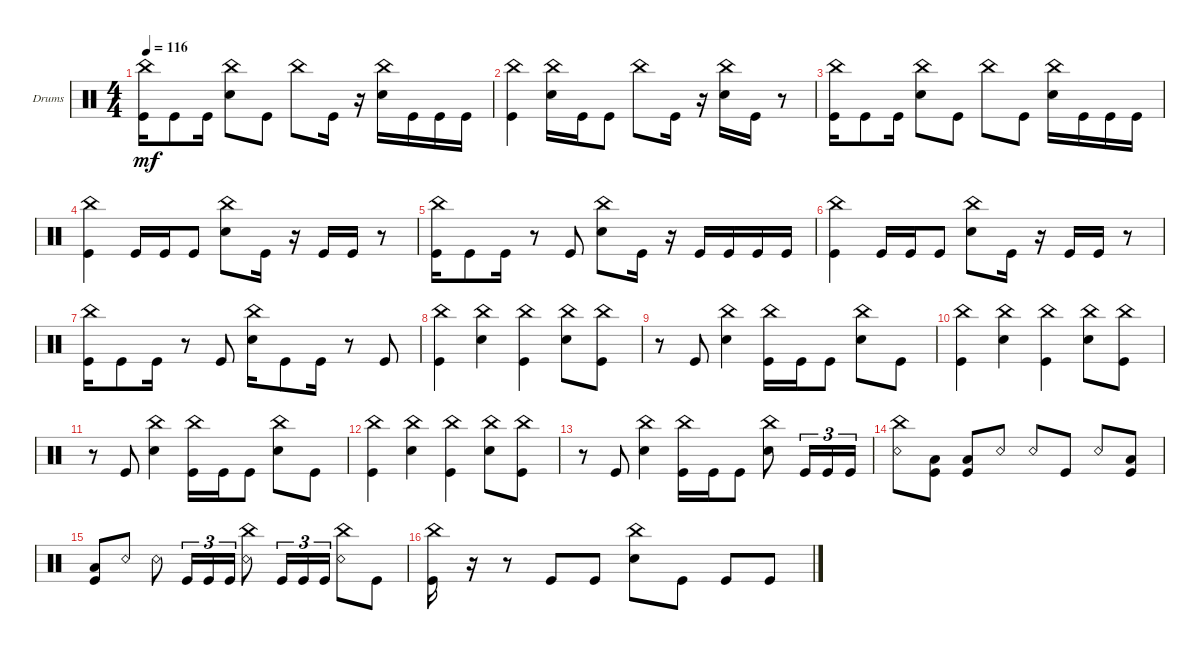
\defaultSystemsLayout 4
\bracketExtendMode groupsimilarinstruments
\firstSystemTrackNameOrientation horizontal
\otherSystemsTrackNameOrientation horizontal
\track ("Drumkit" "Drums") {instrument percussion}
\staff {score}
\articulation defaults
\ts (4 4)
\tempo 116
\clef neutral
\ks c
("Kick (hit)" "China (hit)").16{dy mf} "Kick (hit)".8 "Kick (hit)".16 ("China (hit)" "Snare (hit) 2").8 "Kick (hit)".8 "China (hit)".8 "Kick (hit)".16 r.16 ("China (hit)" "Snare (hit) 2").16 "Kick (hit)".16 "Kick (hit)".16 "Kick (hit)".16 |
("Kick (hit)" "China (hit)").4 ("China (hit)" "Snare (hit) 2").16 "Kick (hit)".16 "Kick (hit)".8 "China (hit)".8 "Kick (hit)".16 r.16 ("China (hit)" "Snare (hit) 2").16 "Kick (hit)".16 r.8 |
("Kick (hit)" "China (hit)").16 "Kick (hit)".8 "Kick (hit)".16 ("China (hit)" "Snare (hit) 2").8 "Kick (hit)".8 "China (hit)".8 "Kick (hit)".8 ("China (hit)" "Snare (hit) 2").16 "Kick (hit)".16 "Kick (hit)".16 "Kick (hit)".16 |
("Kick (hit)" "China (hit)").4 "Kick (hit)".16 "Kick (hit)".16 "Kick (hit)".8 ("China (hit)" "Snare (hit) 2").8 "Kick (hit)".16 r.16 "Kick (hit)".16 "Kick (hit)".16 r.8 |
("Kick (hit)" "China (hit)").16 "Kick (hit)".8 "Kick (hit)".16 r.8 "Kick (hit)".8 ("China (hit)" "Snare (hit) 2").8 "Kick (hit)".16 r.16 "Kick (hit)".16 "Kick (hit)".16 "Kick (hit)".16 "Kick (hit)".16 |
("Kick (hit)" "China (hit)").4 "Kick (hit)".16 "Kick (hit)".16 "Kick (hit)".8 ("China (hit)" "Snare (hit) 2").8 "Kick (hit)".16 r.16 "Kick (hit)".16 "Kick (hit)".16 r.8 |
("Kick (hit)" "China (hit)").16 "Kick (hit)".8 "Kick (hit)".16 r.8 "Kick (hit)".8 ("China (hit)" "Snare (hit) 2").16 "Kick (hit)".8 "Kick (hit)".16 r.8 "Kick (hit)".8 |
("Kick (hit)" "China (hit)").4 ("Snare (hit) 2" "China (hit)").4 ("China (hit)" "Kick (hit)").4 ("China (hit)" "Snare (hit) 2").8 ("Kick (hit)" "China (hit)").8 |
r.8 "Kick (hit)".8 ("Snare (hit) 2" "China (hit)").4 ("China (hit)" "Kick (hit)").16 "Kick (hit)".16 "Kick (hit)".8 ("China (hit)" "Snare (hit) 2").8 "Kick (hit)".8 |
("Kick (hit)" "China (hit)").4 ("Snare (hit) 2" "China (hit)").4 ("China (hit)" "Kick (hit)").4 ("China (hit)" "Snare (hit) 2").8 ("Kick (hit)" "China (hit)").8 |
r.8 "Kick (hit)".8 ("Snare (hit) 2" "China (hit)").4 ("China (hit)" "Kick (hit)").16 "Kick (hit)".16 "Kick (hit)".8 ("China (hit)" "Snare (hit) 2").8 "Kick (hit)".8 |
("Kick (hit)" "China (hit)").4 ("Snare (hit) 2" "China (hit)").4 ("China (hit)" "Kick (hit)").4 ("China (hit)" "Snare (hit) 2").8 ("Kick (hit)" "China (hit)").8 |
r.8 "Kick (hit)".8 ("Snare (hit) 2" "China (hit)").4 ("China (hit)" "Kick (hit)").16 "Kick (hit)".16 "Kick (hit)".8 ("China (hit)" "Snare (hit) 2").8 "Kick (hit)".16{tu (3 2)} "Kick (hit)".16{tu (3 2)} "Kick (hit)".16{tu (3 2)} |
("Snare (rim shot)" "China (hit)").8 ("Kick (hit)" "Low Tom (hit)").8 ("Kick (hit)" "Low Tom (hit)").8 "Snare (rim shot)".8 "Snare (rim shot)".8 "Kick (hit)".8 "Snare (rim shot)".8 ("Kick (hit)" "Low Tom (hit)").8 |
("Low Tom (hit)" "Kick (hit)").8 "Snare (rim shot)".8 "Snare (rim shot)".8 "Kick (hit)".16{tu (3 2)} "Kick (hit)".16{tu (3 2)} "Kick (hit)".16{tu (3 2)} ("Snare (rim shot)" "China (hit)").8 "Kick (hit)".16{tu (3 2)} "Kick (hit)".16{tu (3 2)} "Kick (hit)".16{tu (3 2)} ("China (hit)" "Snare (rim shot)").8 "Kick (hit)".8 |
("Kick (hit)" "China (hit)").16 r.16 r.8 "Kick (hit)".8 "Kick (hit)".8 ("China (hit)" "Snare (hit) 2").8 "Kick (hit)".8 "Kick (hit)".8 "Kick (hit)".8
